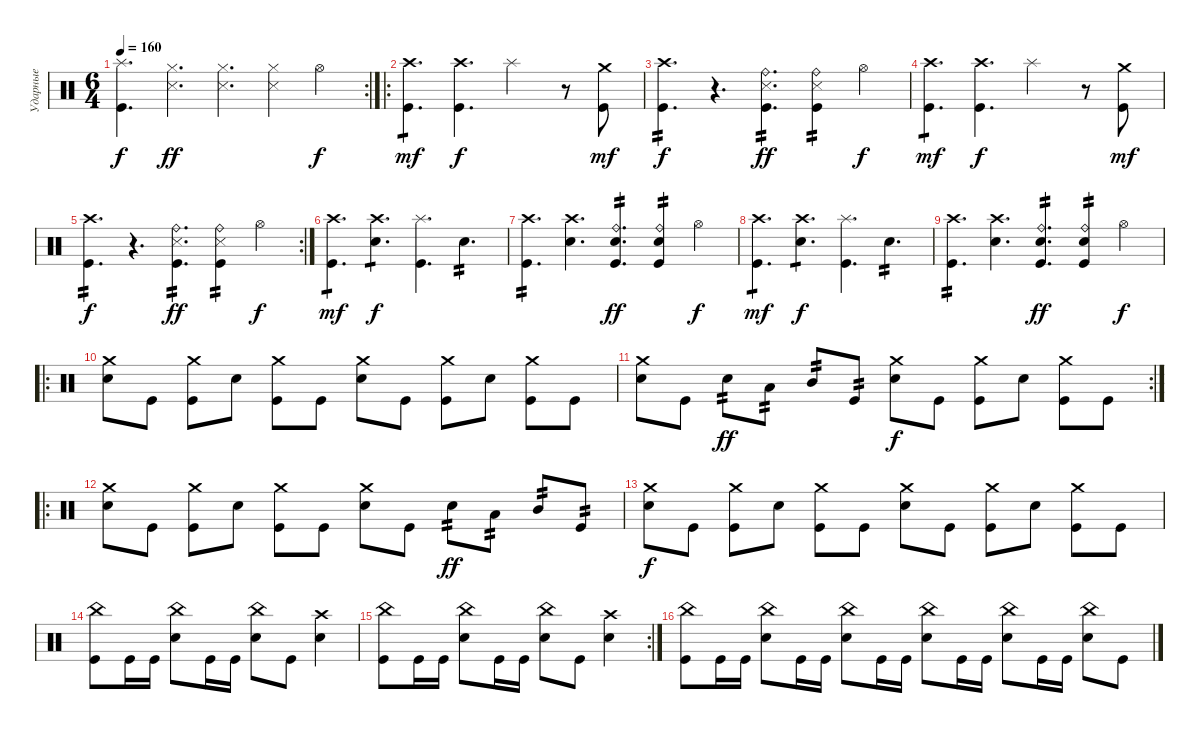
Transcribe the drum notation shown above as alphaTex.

\track ("Ударные" "Ударные") {instrument percussion}
\staff {score}
\articulation defaults
\rc 2
\ts (6 4)
\tempo 160
\clef neutral
\ks c
("Splash (hit)" "Kick (hit)").4{d dy f} ("Hi-Hat (closed)" "Snare (side stick) 3").4{d dy ff} ("Hi-Hat (closed)" "Snare (side stick) 3").4{d} ("Hi-Hat (closed)" "Snare (side stick) 3").4 "Hi-Hat (open)".4{dy f} |
\ro
("Crash high (hit)" "Kick (hit)").4{d tp 1 dy mf} ("Crash high (hit)" "Kick (hit)").4{d dy f} "Splash (hit)".2 r.8 ("Crash medium (hit)" "Kick (hit)").8{dy mf} |
("Crash high (hit)" "Kick (hit)").4{d tp 2 dy f} r.4{d} ("Ride (bell)" "Snare (side stick) 3" "Kick (hit)").4{d tp 2 dy ff} ("Ride (bell)" "Snare (side stick) 3" "Kick (hit)").4{tp 2} "Hi-Hat (open)".4{dy f} |
("Crash high (hit)" "Kick (hit)").4{d tp 1 dy mf} ("Crash high (hit)" "Kick (hit)").4{d dy f} "Splash (hit)".2 r.8 ("Crash medium (hit)" "Kick (hit)").8{dy mf} |
\rc 2
("Crash high (hit)" "Kick (hit)").4{d tp 2 dy f} r.4{d} ("Ride (bell)" "Snare (side stick) 3" "Kick (hit)").4{d tp 2 dy ff} ("Ride (bell)" "Snare (side stick) 3" "Kick (hit)").4{tp 2} "Hi-Hat (open)".4{dy f} |
("Crash high (hit)" "Kick (hit)").4{d tp 1 dy mf} ("Crash high (hit)" "Snare (hit) 2").4{d tp 1 dy f} ("Splash (hit)" "Kick (hit)").4{d} "Snare (hit) 2".4{d tp 2} |
("Crash high (hit)" "Kick (hit)").4{d tp 2} ("Crash high (hit)" "Snare (hit) 2").4{d} ("Ride (bell)" "Snare (hit) 2" "Kick (hit)").4{d tp 2 dy ff} ("Ride (bell)" "Snare (hit) 2" "Kick (hit)").4{tp 2} "Hi-Hat (open)".4{dy f} |
("Crash high (hit)" "Kick (hit)").4{d tp 1 dy mf} ("Crash high (hit)" "Snare (hit) 2").4{d tp 1 dy f} ("Splash (hit)" "Kick (hit)").4{d} "Snare (hit) 2".4{d tp 2} |
("Crash high (hit)" "Kick (hit)").4{d tp 2} ("Crash high (hit)" "Snare (hit) 2").4{d} ("Ride (bell)" "Snare (hit) 2" "Kick (hit)").4{d tp 2 dy ff} ("Ride (bell)" "Snare (hit) 2" "Kick (hit)").4{tp 2} "Hi-Hat (open)".4{dy f} |
\ro
("Crash medium (hit)" "Snare (hit) 2").8 "Kick (hit)".8 ("Crash medium (hit)" "Kick (hit)").8 "Snare (hit) 2".8 ("Crash medium (hit)" "Kick (hit)").8 "Kick (hit)".8 ("Crash medium (hit)" "Snare (hit) 2").8 "Kick (hit)".8 ("Crash medium (hit)" "Kick (hit)").8 "Snare (hit) 2".8 ("Crash medium (hit)" "Kick (hit)").8 "Kick (hit)".8 |
\rc 2
("Crash medium (hit)" "Snare (hit) 2").8 "Kick (hit)".8 "Snare (hit) 2".8{tp 2 dy ff} "Low Tom (hit)".8{tp 2} "Mid Tom (hit)".8{tp 2} "Kick (hit)".8{tp 2} ("Crash medium (hit)" "Snare (hit) 2").8{dy f} "Kick (hit)".8 ("Crash medium (hit)" "Kick (hit)").8 "Snare (hit) 2".8 ("Crash medium (hit)" "Kick (hit)").8 "Kick (hit)".8 |
\ro
("Crash medium (hit)" "Snare (hit) 2").8 "Kick (hit)".8 ("Crash medium (hit)" "Kick (hit)").8 "Snare (hit) 2".8 ("Crash medium (hit)" "Kick (hit)").8 "Kick (hit)".8 ("Crash medium (hit)" "Snare (hit) 2").8 "Kick (hit)".8 "Snare (hit) 2".8{tp 2 dy ff} "Low Tom (hit)".8{tp 2} "Mid Tom (hit)".8{tp 2} "Kick (hit)".8{tp 2} |
("Crash medium (hit)" "Snare (hit) 2").8{dy f} "Kick (hit)".8 ("Crash medium (hit)" "Kick (hit)").8 "Snare (hit) 2".8 ("Crash medium (hit)" "Kick (hit)").8 "Kick (hit)".8 ("Crash medium (hit)" "Snare (hit) 2").8 "Kick (hit)".8 ("Crash medium (hit)" "Kick (hit)").8 "Snare (hit) 2".8 ("Crash medium (hit)" "Kick (hit)").8 "Kick (hit)".8 |
("China (hit)" "Kick (hit)").8 "Kick (hit)".16 "Kick (hit)".16 ("China (hit)" "Snare (hit) 2").8 "Kick (hit)".16 "Kick (hit)".16 ("China (hit)" "Snare (hit) 2").8 "Kick (hit)".8 ("Crash high (hit)" "Snare (hit) 2").4 |
\rc 2
("China (hit)" "Kick (hit)").8 "Kick (hit)".16 "Kick (hit)".16 ("China (hit)" "Snare (hit) 2").8 "Kick (hit)".16 "Kick (hit)".16 ("China (hit)" "Snare (hit) 2").8 "Kick (hit)".8 ("Crash high (hit)" "Snare (hit) 2").4 |
("China (hit)" "Kick (hit)").8 "Kick (hit)".16 "Kick (hit)".16 ("China (hit)" "Snare (hit) 2").8 "Kick (hit)".16 "Kick (hit)".16 ("China (hit)" "Snare (hit) 2").8 "Kick (hit)".16 "Kick (hit)".16 ("China (hit)" "Snare (hit) 2").8 "Kick (hit)".16 "Kick (hit)".16 ("China (hit)" "Snare (hit) 2").8 "Kick (hit)".16 "Kick (hit)".16 ("China (hit)" "Snare (hit) 2").8 "Kick (hit)".8
